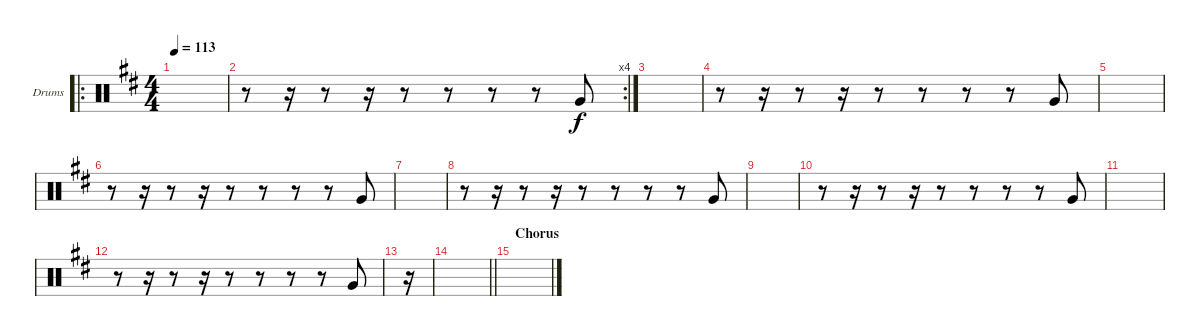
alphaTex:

\bracketExtendMode groupsimilarinstruments
\firstSystemTrackNameOrientation horizontal
\otherSystemsTrackNameOrientation horizontal
\track ("Tom" "Drums") {instrument percussion}
\staff {score}
\articulation defaults
\ro
\ts (4 4)
\beaming (8 2 2 2 2)
\tempo 113
\clef neutral
\scale
0.528
\ks d
|
\rc 4
\scale
0.248 r.8 r.16 r.8 r.16 r.8 r.8 r.8 r.8 "Very Low Tom (hit)".8 |
\scale
0.224 |
\scale
0.333333 r.8 r.16 r.8 r.16 r.8 r.8 r.8 r.8 "Very Low Tom (hit)".8 |
\scale
0.333333 |
\scale
0.333333 r.8 r.16 r.8 r.16 r.8 r.8 r.8 r.8 "Very Low Tom (hit)".8 |
\scale
0.333333 |
\scale
0.333333 r.8 r.16 r.8 r.16 r.8 r.8 r.8 r.8 "Very Low Tom (hit)".8 |
\scale
0.333333 |
\scale
0.333333 r.8 r.16 r.8 r.16 r.8 r.8 r.8 r.8 "Very Low Tom (hit)".8 |
\scale
0.333333 |
\scale
0.333333 r.8 r.16 r.8 r.16 r.8 r.8 r.8 r.8 "Very Low Tom (hit)".8 |
\scale
0.333333 r.16 |
\scale
0.333333
\barLineRight lightlight
|
\section ("" "Chorus")
\scale
0.333333 |
\scale
0.333333
